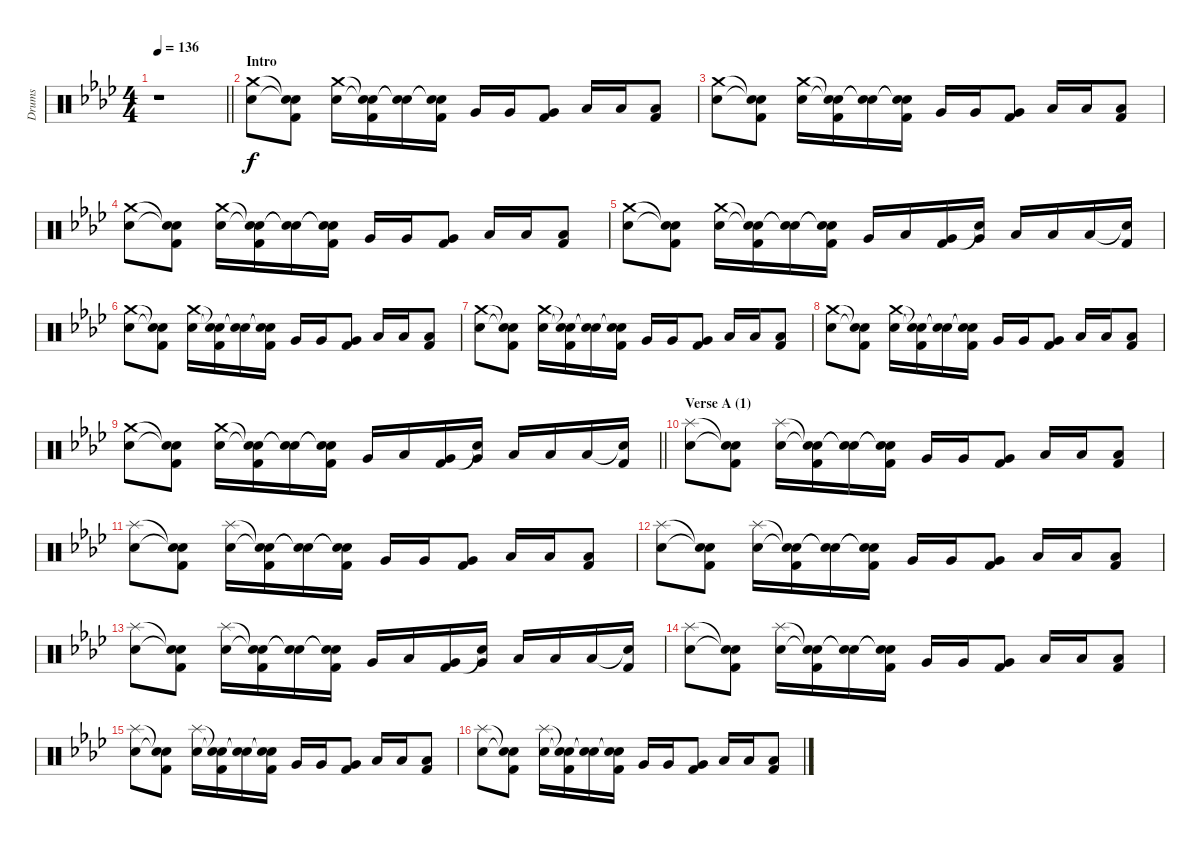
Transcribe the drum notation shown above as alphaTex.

\track ("Drums" "Drums") {instrument percussion}
\staff {score}
\articulation defaults
\ts (4 4)
\tempo 136
\clef neutral
\barLineRight lightlight
\ks ab
r.1{dy f} |
\section ("" "Intro")
("Crash medium (hit)" "Electric Snare (hit)").8 ("Snare (hit)"{t} "Snare (hit)"{t} "Kick (hit) 2").8 ("Crash medium (hit)" "Electric Snare (hit)").16 ("Snare (hit)"{t} "Snare (hit)"{t} "Kick (hit) 2").16 ("Snare (hit)"{t} "Snare (hit)"{t}).16 ("Snare (hit)"{t} "Snare (hit)"{t} "Kick (hit) 2").16 "Very Low Tom (hit)".16 "Very Low Tom (hit)".16 ("Very Low Tom (hit)" "Kick (hit) 2").8 "Low Floor Tom (hit)".16 "Low Floor Tom (hit)".16 ("Low Floor Tom (hit)" "Kick (hit) 2").8 |
("Crash medium (hit)" "Electric Snare (hit)").8 ("Snare (hit)"{t} "Snare (hit)"{t} "Kick (hit) 2").8 ("Crash medium (hit)" "Electric Snare (hit)").16 ("Snare (hit)"{t} "Snare (hit)"{t} "Kick (hit) 2").16 ("Snare (hit)"{t} "Snare (hit)"{t}).16 ("Snare (hit)"{t} "Snare (hit)"{t} "Kick (hit) 2").16 "Very Low Tom (hit)".16 "Very Low Tom (hit)".16 ("Very Low Tom (hit)" "Kick (hit) 2").8 "Low Floor Tom (hit)".16 "Low Floor Tom (hit)".16 ("Low Floor Tom (hit)" "Kick (hit) 2").8 |
("Crash medium (hit)" "Electric Snare (hit)").8 ("Snare (hit)"{t} "Snare (hit)"{t} "Kick (hit) 2").8 ("Crash medium (hit)" "Electric Snare (hit)").16 ("Snare (hit)"{t} "Snare (hit)"{t} "Kick (hit) 2").16 ("Snare (hit)"{t} "Snare (hit)"{t}).16 ("Snare (hit)"{t} "Snare (hit)"{t} "Kick (hit) 2").16 "Very Low Tom (hit)".16 "Very Low Tom (hit)".16 ("Very Low Tom (hit)" "Kick (hit) 2").8 "Low Floor Tom (hit)".16 "Low Floor Tom (hit)".16 ("Low Floor Tom (hit)" "Kick (hit) 2").8 |
("Crash medium (hit)" "Electric Snare (hit)").8 ("Snare (hit)"{t} "Snare (hit)"{t} "Kick (hit) 2").8 ("Crash medium (hit)" "Electric Snare (hit)").16 ("Snare (hit)"{t} "Snare (hit)"{t} "Kick (hit) 2").16 ("Snare (hit)"{t} "Snare (hit)"{t}).16 ("Snare (hit)"{t} "Snare (hit)"{t} "Kick (hit) 2").16 "Very Low Tom (hit)".16 "Low Tom (hit)".16 ("Very Low Tom (hit)" "Kick (hit) 2").16 ("Very Low Tom (hit)" "Snare (hit)"{t}).16 "Low Floor Tom (hit)".16 "Low Floor Tom (hit)".16 "Low Floor Tom (hit)".16 ("Snare (hit)"{t} "Kick (hit) 2").16 |
("Crash medium (hit)" "Electric Snare (hit)").8 ("Snare (hit)"{t} "Snare (hit)"{t} "Kick (hit) 2").8 ("Crash medium (hit)" "Electric Snare (hit)").16 ("Snare (hit)"{t} "Snare (hit)"{t} "Kick (hit) 2").16 ("Snare (hit)"{t} "Snare (hit)"{t}).16 ("Snare (hit)"{t} "Snare (hit)"{t} "Kick (hit) 2").16 "Very Low Tom (hit)".16 "Very Low Tom (hit)".16 ("Very Low Tom (hit)" "Kick (hit) 2").8 "Low Floor Tom (hit)".16 "Low Floor Tom (hit)".16 ("Low Floor Tom (hit)" "Kick (hit) 2").8 |
("Crash medium (hit)" "Electric Snare (hit)").8 ("Snare (hit)"{t} "Snare (hit)"{t} "Kick (hit) 2").8 ("Crash medium (hit)" "Electric Snare (hit)").16 ("Snare (hit)"{t} "Snare (hit)"{t} "Kick (hit) 2").16 ("Snare (hit)"{t} "Snare (hit)"{t}).16 ("Snare (hit)"{t} "Snare (hit)"{t} "Kick (hit) 2").16 "Very Low Tom (hit)".16 "Very Low Tom (hit)".16 ("Very Low Tom (hit)" "Kick (hit) 2").8 "Low Floor Tom (hit)".16 "Low Floor Tom (hit)".16 ("Low Floor Tom (hit)" "Kick (hit) 2").8 |
("Crash medium (hit)" "Electric Snare (hit)").8 ("Snare (hit)"{t} "Snare (hit)"{t} "Kick (hit) 2").8 ("Crash medium (hit)" "Electric Snare (hit)").16 ("Snare (hit)"{t} "Snare (hit)"{t} "Kick (hit) 2").16 ("Snare (hit)"{t} "Snare (hit)"{t}).16 ("Snare (hit)"{t} "Snare (hit)"{t} "Kick (hit) 2").16 "Very Low Tom (hit)".16 "Very Low Tom (hit)".16 ("Very Low Tom (hit)" "Kick (hit) 2").8 "Low Floor Tom (hit)".16 "Low Floor Tom (hit)".16 ("Low Floor Tom (hit)" "Kick (hit) 2").8 |
\barLineRight lightlight
("Crash medium (hit)" "Electric Snare (hit)").8 ("Snare (hit)"{t} "Snare (hit)"{t} "Kick (hit) 2").8 ("Crash medium (hit)" "Electric Snare (hit)").16 ("Snare (hit)"{t} "Snare (hit)"{t} "Kick (hit) 2").16 ("Snare (hit)"{t} "Snare (hit)"{t}).16 ("Snare (hit)"{t} "Snare (hit)"{t} "Kick (hit) 2").16 "Very Low Tom (hit)".16 "Low Tom (hit)".16 ("Very Low Tom (hit)" "Kick (hit) 2").16 ("Very Low Tom (hit)" "Snare (hit)"{t}).16 "Low Floor Tom (hit)".16 "Low Floor Tom (hit)".16 "Low Floor Tom (hit)".16 ("Snare (hit)"{t} "Kick (hit) 2").16 |
\section ("" "Verse A (1)")
("Splash (hit)" "Electric Snare (hit)").8 ("Snare (hit)"{t} "Snare (hit)"{t} "Kick (hit) 2").8 ("Splash (hit)" "Electric Snare (hit)").16 ("Snare (hit)"{t} "Snare (hit)"{t} "Kick (hit) 2").16 ("Snare (hit)"{t} "Snare (hit)"{t}).16 ("Snare (hit)"{t} "Snare (hit)"{t} "Kick (hit) 2").16 "Very Low Tom (hit)".16 "Very Low Tom (hit)".16 ("Very Low Tom (hit)" "Kick (hit) 2").8 "Low Floor Tom (hit)".16 "Low Floor Tom (hit)".16 ("Low Floor Tom (hit)" "Kick (hit) 2").8 |
("Splash (hit)" "Electric Snare (hit)").8 ("Snare (hit)"{t} "Snare (hit)"{t} "Kick (hit) 2").8 ("Splash (hit)" "Electric Snare (hit)").16 ("Snare (hit)"{t} "Snare (hit)"{t} "Kick (hit) 2").16 ("Snare (hit)"{t} "Snare (hit)"{t}).16 ("Snare (hit)"{t} "Snare (hit)"{t} "Kick (hit) 2").16 "Very Low Tom (hit)".16 "Very Low Tom (hit)".16 ("Very Low Tom (hit)" "Kick (hit) 2").8 "Low Floor Tom (hit)".16 "Low Floor Tom (hit)".16 ("Low Floor Tom (hit)" "Kick (hit) 2").8 |
("Splash (hit)" "Electric Snare (hit)").8 ("Snare (hit)"{t} "Snare (hit)"{t} "Kick (hit) 2").8 ("Splash (hit)" "Electric Snare (hit)").16 ("Snare (hit)"{t} "Snare (hit)"{t} "Kick (hit) 2").16 ("Snare (hit)"{t} "Snare (hit)"{t}).16 ("Snare (hit)"{t} "Snare (hit)"{t} "Kick (hit) 2").16 "Very Low Tom (hit)".16 "Very Low Tom (hit)".16 ("Very Low Tom (hit)" "Kick (hit) 2").8 "Low Floor Tom (hit)".16 "Low Floor Tom (hit)".16 ("Low Floor Tom (hit)" "Kick (hit) 2").8 |
("Splash (hit)" "Electric Snare (hit)").8 ("Snare (hit)"{t} "Snare (hit)"{t} "Kick (hit) 2").8 ("Splash (hit)" "Electric Snare (hit)").16 ("Snare (hit)"{t} "Snare (hit)"{t} "Kick (hit) 2").16 ("Snare (hit)"{t} "Snare (hit)"{t}).16 ("Snare (hit)"{t} "Snare (hit)"{t} "Kick (hit) 2").16 "Very Low Tom (hit)".16 "Low Tom (hit)".16 ("Very Low Tom (hit)" "Kick (hit) 2").16 ("Very Low Tom (hit)" "Snare (hit)"{t}).16 "Low Floor Tom (hit)".16 "Low Floor Tom (hit)".16 "Low Floor Tom (hit)".16 ("Snare (hit)"{t} "Kick (hit) 2").16 |
("Splash (hit)" "Electric Snare (hit)").8 ("Snare (hit)"{t} "Snare (hit)"{t} "Kick (hit) 2").8 ("Splash (hit)" "Electric Snare (hit)").16 ("Snare (hit)"{t} "Snare (hit)"{t} "Kick (hit) 2").16 ("Snare (hit)"{t} "Snare (hit)"{t}).16 ("Snare (hit)"{t} "Snare (hit)"{t} "Kick (hit) 2").16 "Very Low Tom (hit)".16 "Very Low Tom (hit)".16 ("Very Low Tom (hit)" "Kick (hit) 2").8 "Low Floor Tom (hit)".16 "Low Floor Tom (hit)".16 ("Low Floor Tom (hit)" "Kick (hit) 2").8 |
("Splash (hit)" "Electric Snare (hit)").8 ("Snare (hit)"{t} "Snare (hit)"{t} "Kick (hit) 2").8 ("Splash (hit)" "Electric Snare (hit)").16 ("Snare (hit)"{t} "Snare (hit)"{t} "Kick (hit) 2").16 ("Snare (hit)"{t} "Snare (hit)"{t}).16 ("Snare (hit)"{t} "Snare (hit)"{t} "Kick (hit) 2").16 "Very Low Tom (hit)".16 "Very Low Tom (hit)".16 ("Very Low Tom (hit)" "Kick (hit) 2").8 "Low Floor Tom (hit)".16 "Low Floor Tom (hit)".16 ("Low Floor Tom (hit)" "Kick (hit) 2").8 |
("Splash (hit)" "Electric Snare (hit)").8 ("Snare (hit)"{t} "Snare (hit)"{t} "Kick (hit) 2").8 ("Splash (hit)" "Electric Snare (hit)").16 ("Snare (hit)"{t} "Snare (hit)"{t} "Kick (hit) 2").16 ("Snare (hit)"{t} "Snare (hit)"{t}).16 ("Snare (hit)"{t} "Snare (hit)"{t} "Kick (hit) 2").16 "Very Low Tom (hit)".16 "Very Low Tom (hit)".16 ("Very Low Tom (hit)" "Kick (hit) 2").8 "Low Floor Tom (hit)".16 "Low Floor Tom (hit)".16 ("Low Floor Tom (hit)" "Kick (hit) 2").8
